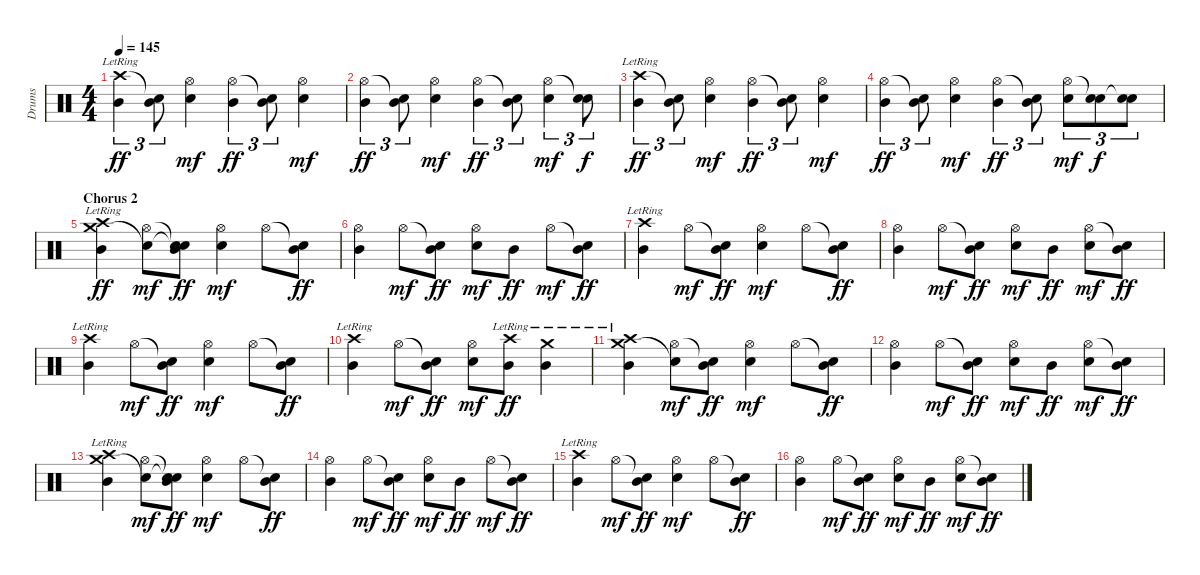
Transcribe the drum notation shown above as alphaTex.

\track ("Drums" "Drums") {instrument percussion}
\staff {score}
\articulation defaults
\ts (4 4)
\tempo 145
\clef neutral
\ks c
("Crash high (hit)"{lr} "Mid Tom (hit)").4{tu (3 2) dy ff} ("Snare (hit)"{t} "Mid Tom (hit)").8{tu (3 2)} ("Hi-Hat (open)" "Electric Snare (hit)").4{dy mf} ("Hi-Hat (open)" "Mid Tom (hit)").4{tu (3 2) dy ff} ("Snare (hit)"{t} "Mid Tom (hit)").8{tu (3 2)} ("Hi-Hat (open)" "Electric Snare (hit)").4{dy mf} |
("Hi-Hat (open)" "Mid Tom (hit)").4{tu (3 2) dy ff} ("Snare (hit)"{t} "Mid Tom (hit)").8{tu (3 2)} ("Hi-Hat (open)" "Electric Snare (hit)").4{dy mf} ("Hi-Hat (open)" "Mid Tom (hit)").4{tu (3 2) dy ff} ("Snare (hit)"{t} "Mid Tom (hit)").8{tu (3 2)} ("Hi-Hat (open)" "Electric Snare (hit)").4{tu (3 2) dy mf} ("Snare (hit)"{t} "Electric Snare (hit)").8{tu (3 2) dy f} |
("Crash high (hit)"{lr} "Mid Tom (hit)").4{tu (3 2) dy ff} ("Snare (hit)"{t} "Mid Tom (hit)").8{tu (3 2)} ("Hi-Hat (open)" "Electric Snare (hit)").4{dy mf} ("Hi-Hat (open)" "Mid Tom (hit)").4{tu (3 2) dy ff} ("Snare (hit)"{t} "Mid Tom (hit)").8{tu (3 2)} ("Hi-Hat (open)" "Electric Snare (hit)").4{dy mf} |
("Hi-Hat (open)" "Mid Tom (hit)").4{tu (3 2) dy ff} ("Snare (hit)"{t} "Mid Tom (hit)").8{tu (3 2)} ("Hi-Hat (open)" "Electric Snare (hit)").4{dy mf} ("Hi-Hat (open)" "Mid Tom (hit)").4{tu (3 2) dy ff} ("Snare (hit)"{t} "Mid Tom (hit)").8{tu (3 2)} ("Hi-Hat (open)" "Electric Snare (hit)").8{tu (3 2) dy mf} ("Snare (hit)"{t} "Electric Snare (hit)").8{tu (3 2) dy f} ("Snare (hit)"{t} "Electric Snare (hit)").8{tu (3 2)} |
\section ("" "Chorus 2")
("Crash high (hit)"{lr} "Crash medium (hit)" "Mid Tom (hit)").4{dy ff} ("Hi-Hat (open)" "Snare (hit)"{t}).8{dy mf} ("Snare (hit)"{t} "Snare (hit)"{t} "Mid Tom (hit)").8{dy ff} ("Hi-Hat (open)" "Electric Snare (hit)").4{dy mf} "Hi-Hat (open)".8 ("Snare (hit)"{t} "Mid Tom (hit)").8{dy ff} |
("Hi-Hat (open)" "Mid Tom (hit)").4 "Hi-Hat (open)".8{dy mf} ("Snare (hit)"{t} "Mid Tom (hit)").8{dy ff} ("Hi-Hat (open)" "Electric Snare (hit)").8{dy mf} "Mid Tom (hit)".8{dy ff} "Hi-Hat (open)".8{dy mf} ("Snare (hit)"{t} "Mid Tom (hit)").8{dy ff} |
("Crash high (hit)"{lr} "Mid Tom (hit)").4 "Hi-Hat (open)".8{dy mf} ("Snare (hit)"{t} "Mid Tom (hit)").8{dy ff} ("Hi-Hat (open)" "Electric Snare (hit)").4{dy mf} "Hi-Hat (open)".8 ("Snare (hit)"{t} "Mid Tom (hit)").8{dy ff} |
("Hi-Hat (open)" "Mid Tom (hit)").4 "Hi-Hat (open)".8{dy mf} ("Snare (hit)"{t} "Mid Tom (hit)").8{dy ff} ("Hi-Hat (open)" "Electric Snare (hit)").8{dy mf} "Mid Tom (hit)".8{dy ff} ("Hi-Hat (open)" "Electric Snare (hit)").8{dy mf} ("Snare (hit)"{t} "Mid Tom (hit)").8{dy ff} |
("Crash high (hit)"{lr} "Mid Tom (hit)").4 "Hi-Hat (open)".8{dy mf} ("Snare (hit)"{t} "Mid Tom (hit)").8{dy ff} ("Hi-Hat (open)" "Electric Snare (hit)").4{dy mf} "Hi-Hat (open)".8 ("Snare (hit)"{t} "Mid Tom (hit)").8{dy ff} |
("Crash high (hit)"{lr} "Mid Tom (hit)").4 "Hi-Hat (open)".8{dy mf} ("Snare (hit)"{t} "Mid Tom (hit)").8{dy ff} ("Hi-Hat (open)" "Electric Snare (hit)").8{dy mf} ("Crash high (hit)"{lr} "Mid Tom (hit)").8{dy ff} ("Crash medium (hit)"{lr} "Mid Tom (hit)").4 |
("Crash high (hit)"{lr} "Crash medium (hit)" "Mid Tom (hit)").4 ("Hi-Hat (open)" "Snare (hit)"{t}).8{dy mf} ("Snare (hit)"{t} "Mid Tom (hit)").8{dy ff} ("Hi-Hat (open)" "Electric Snare (hit)").4{dy mf} "Hi-Hat (open)".8 ("Snare (hit)"{t} "Mid Tom (hit)").8{dy ff} |
("Hi-Hat (open)" "Mid Tom (hit)").4 "Hi-Hat (open)".8{dy mf} ("Snare (hit)"{t} "Mid Tom (hit)").8{dy ff} ("Hi-Hat (open)" "Electric Snare (hit)").8{dy mf} "Mid Tom (hit)".8{dy ff} ("Hi-Hat (open)" "Electric Snare (hit)").8{dy mf} ("Snare (hit)"{t} "Mid Tom (hit)").8{dy ff} |
("Crash high (hit)"{lr} "Crash medium (hit)" "Mid Tom (hit)").4 ("Hi-Hat (open)" "Snare (hit)"{t}).8{dy mf} ("Snare (hit)"{t} "Snare (hit)"{t} "Mid Tom (hit)").8{dy ff} ("Hi-Hat (open)" "Electric Snare (hit)").4{dy mf} "Hi-Hat (open)".8 ("Snare (hit)"{t} "Mid Tom (hit)").8{dy ff} |
("Hi-Hat (open)" "Mid Tom (hit)").4 "Hi-Hat (open)".8{dy mf} ("Snare (hit)"{t} "Mid Tom (hit)").8{dy ff} ("Hi-Hat (open)" "Electric Snare (hit)").8{dy mf} "Mid Tom (hit)".8{dy ff} "Hi-Hat (open)".8{dy mf} ("Snare (hit)"{t} "Mid Tom (hit)").8{dy ff} |
("Crash high (hit)"{lr} "Mid Tom (hit)").4 "Hi-Hat (open)".8{dy mf} ("Snare (hit)"{t} "Mid Tom (hit)").8{dy ff} ("Hi-Hat (open)" "Electric Snare (hit)").4{dy mf} "Hi-Hat (open)".8 ("Snare (hit)"{t} "Mid Tom (hit)").8{dy ff} |
("Hi-Hat (open)" "Mid Tom (hit)").4 "Hi-Hat (open)".8{dy mf} ("Snare (hit)"{t} "Mid Tom (hit)").8{dy ff} ("Hi-Hat (open)" "Electric Snare (hit)").8{dy mf} "Mid Tom (hit)".8{dy ff} ("Hi-Hat (open)" "Electric Snare (hit)").8{dy mf} ("Snare (hit)"{t} "Mid Tom (hit)").8{dy ff}
